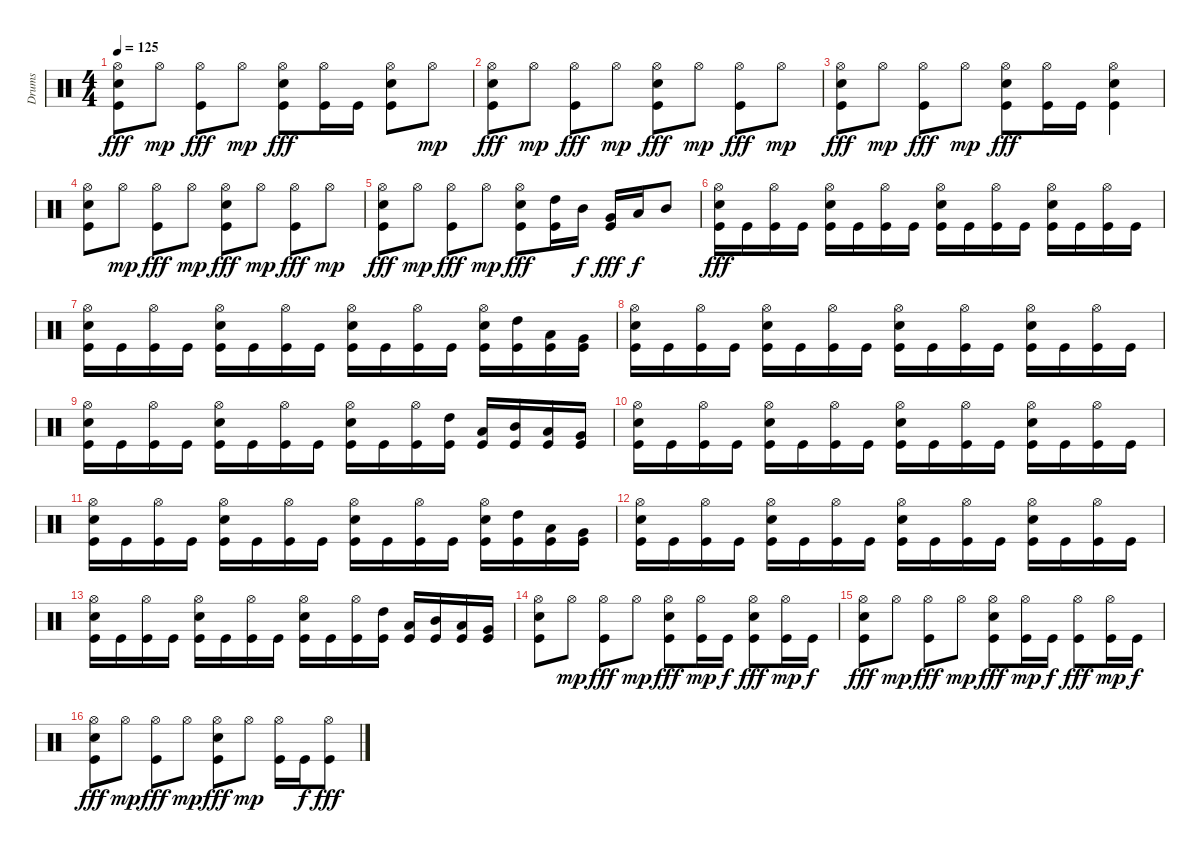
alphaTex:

\track ("Drums" "Drums") {instrument percussion}
\staff {score}
\articulation defaults
\ts (4 4)
\tempo 125
\clef neutral
\ks c
("Hi-Hat (open)" "Snare (hit) 2" "Kick (hit)").8{dy fff} "Hi-Hat (open)".8{dy mp} ("Hi-Hat (open)" "Kick (hit)").8{dy fff} "Hi-Hat (open)".8{dy mp} ("Hi-Hat (open)" "Snare (hit) 2" "Kick (hit)").8{dy fff} ("Hi-Hat (open)" "Kick (hit)").16 "Kick (hit)".16 ("Hi-Hat (open)" "Electric Snare (hit)" "Kick (hit)").8 "Hi-Hat (open)".8{dy mp} |
("Hi-Hat (open)" "Snare (hit) 2" "Kick (hit)").8{dy fff} "Hi-Hat (open)".8{dy mp} ("Hi-Hat (open)" "Kick (hit)").8{dy fff} "Hi-Hat (open)".8{dy mp} ("Hi-Hat (open)" "Snare (hit) 2" "Kick (hit)").8{dy fff} "Hi-Hat (open)".8{dy mp} ("Hi-Hat (open)" "Kick (hit)").8{dy fff} "Hi-Hat (open)".8{dy mp} |
("Hi-Hat (open)" "Snare (hit) 2" "Kick (hit)").8{dy fff} "Hi-Hat (open)".8{dy mp} ("Hi-Hat (open)" "Kick (hit)").8{dy fff} "Hi-Hat (open)".8{dy mp} ("Hi-Hat (open)" "Snare (hit) 2" "Kick (hit)").8{dy fff} ("Hi-Hat (open)" "Kick (hit)").16 "Kick (hit)".16 ("Hi-Hat (open)" "Electric Snare (hit)" "Kick (hit)").4 |
("Hi-Hat (open)" "Snare (hit) 2" "Kick (hit)").8 "Hi-Hat (open)".8{dy mp} ("Hi-Hat (open)" "Kick (hit)").8{dy fff} "Hi-Hat (open)".8{dy mp} ("Hi-Hat (open)" "Snare (hit) 2" "Kick (hit)").8{dy fff} "Hi-Hat (open)".8{dy mp} ("Hi-Hat (open)" "Kick (hit)").8{dy fff} "Hi-Hat (open)".8{dy mp} |
("Hi-Hat (open)" "Snare (hit) 2" "Kick (hit)").8{dy fff} "Hi-Hat (open)".8{dy mp} ("Hi-Hat (open)" "Kick (hit)").8{dy fff} "Hi-Hat (open)".8{dy mp} ("Hi-Hat (open)" "Snare (hit) 2" "Kick (hit)").8{dy fff} ("High Tom (hit)" "Kick (hit)").16 "Mid Tom (hit)".16{dy f} ("Very Low Tom (hit)" "Kick (hit)").16{dy fff} "Low Tom (hit)".16{dy f} "Mid Tom (hit)".8 |
("Hi-Hat (open)" "Electric Snare (hit)" "Kick (hit)").16{dy fff} "Kick (hit)".16 ("Hi-Hat (open)" "Kick (hit)").16 "Kick (hit)".16 ("Hi-Hat (open)" "Electric Snare (hit)" "Kick (hit)").16 "Kick (hit)".16 ("Hi-Hat (open)" "Kick (hit)").16 "Kick (hit)".16 ("Hi-Hat (open)" "Electric Snare (hit)" "Kick (hit)").16 "Kick (hit)".16 ("Hi-Hat (open)" "Kick (hit)").16 "Kick (hit)".16 ("Hi-Hat (open)" "Electric Snare (hit)" "Kick (hit)").16 "Kick (hit)".16 ("Hi-Hat (open)" "Kick (hit)").16 "Kick (hit)".16 |
("Hi-Hat (open)" "Electric Snare (hit)" "Kick (hit)").16 "Kick (hit)".16 ("Hi-Hat (open)" "Kick (hit)").16 "Kick (hit)".16 ("Hi-Hat (open)" "Electric Snare (hit)" "Kick (hit)").16 "Kick (hit)".16 ("Hi-Hat (open)" "Kick (hit)").16 "Kick (hit)".16 ("Hi-Hat (open)" "Electric Snare (hit)" "Kick (hit)").16 "Kick (hit)".16 ("Hi-Hat (open)" "Kick (hit)").16 "Kick (hit)".16 ("Hi-Hat (open)" "Electric Snare (hit)" "Kick (hit)").16 ("High Tom (hit)" "Kick (hit)").16 ("Low Tom (hit)" "Kick (hit)").16 ("Very Low Tom (hit)" "Kick (hit)").16 |
("Hi-Hat (open)" "Electric Snare (hit)" "Kick (hit)").16 "Kick (hit)".16 ("Hi-Hat (open)" "Kick (hit)").16 "Kick (hit)".16 ("Hi-Hat (open)" "Electric Snare (hit)" "Kick (hit)").16 "Kick (hit)".16 ("Hi-Hat (open)" "Kick (hit)").16 "Kick (hit)".16 ("Hi-Hat (open)" "Electric Snare (hit)" "Kick (hit)").16 "Kick (hit)".16 ("Hi-Hat (open)" "Kick (hit)").16 "Kick (hit)".16 ("Hi-Hat (open)" "Electric Snare (hit)" "Kick (hit)").16 "Kick (hit)".16 ("Hi-Hat (open)" "Kick (hit)").16 "Kick (hit)".16 |
("Hi-Hat (open)" "Electric Snare (hit)" "Kick (hit)").16 "Kick (hit)".16 ("Hi-Hat (open)" "Kick (hit)").16 "Kick (hit)".16 ("Hi-Hat (open)" "Electric Snare (hit)" "Kick (hit)").16 "Kick (hit)".16 ("Hi-Hat (open)" "Kick (hit)").16 "Kick (hit)".16 ("Hi-Hat (open)" "Electric Snare (hit)" "Kick (hit)").16 "Kick (hit)".16 ("Hi-Hat (open)" "Kick (hit)").16 ("High Tom (hit)" "Kick (hit)").16 ("Low Tom (hit)" "Kick (hit)").16 ("Mid Tom (hit)" "Kick (hit)").16 ("Low Tom (hit)" "Kick (hit)").16 ("Very Low Tom (hit)" "Kick (hit)").16 |
("Hi-Hat (open)" "Electric Snare (hit)" "Kick (hit)").16 "Kick (hit)".16 ("Hi-Hat (open)" "Kick (hit)").16 "Kick (hit)".16 ("Hi-Hat (open)" "Electric Snare (hit)" "Kick (hit)").16 "Kick (hit)".16 ("Hi-Hat (open)" "Kick (hit)").16 "Kick (hit)".16 ("Hi-Hat (open)" "Electric Snare (hit)" "Kick (hit)").16 "Kick (hit)".16 ("Hi-Hat (open)" "Kick (hit)").16 "Kick (hit)".16 ("Hi-Hat (open)" "Electric Snare (hit)" "Kick (hit)").16 "Kick (hit)".16 ("Hi-Hat (open)" "Kick (hit)").16 "Kick (hit)".16 |
("Hi-Hat (open)" "Electric Snare (hit)" "Kick (hit)").16 "Kick (hit)".16 ("Hi-Hat (open)" "Kick (hit)").16 "Kick (hit)".16 ("Hi-Hat (open)" "Electric Snare (hit)" "Kick (hit)").16 "Kick (hit)".16 ("Hi-Hat (open)" "Kick (hit)").16 "Kick (hit)".16 ("Hi-Hat (open)" "Electric Snare (hit)" "Kick (hit)").16 "Kick (hit)".16 ("Hi-Hat (open)" "Kick (hit)").16 "Kick (hit)".16 ("Hi-Hat (open)" "Electric Snare (hit)" "Kick (hit)").16 ("High Tom (hit)" "Kick (hit)").16 ("Low Tom (hit)" "Kick (hit)").16 ("Very Low Tom (hit)" "Kick (hit)").16 |
("Hi-Hat (open)" "Electric Snare (hit)" "Kick (hit)").16 "Kick (hit)".16 ("Hi-Hat (open)" "Kick (hit)").16 "Kick (hit)".16 ("Hi-Hat (open)" "Electric Snare (hit)" "Kick (hit)").16 "Kick (hit)".16 ("Hi-Hat (open)" "Kick (hit)").16 "Kick (hit)".16 ("Hi-Hat (open)" "Electric Snare (hit)" "Kick (hit)").16 "Kick (hit)".16 ("Hi-Hat (open)" "Kick (hit)").16 "Kick (hit)".16 ("Hi-Hat (open)" "Electric Snare (hit)" "Kick (hit)").16 "Kick (hit)".16 ("Hi-Hat (open)" "Kick (hit)").16 "Kick (hit)".16 |
("Hi-Hat (open)" "Electric Snare (hit)" "Kick (hit)").16 "Kick (hit)".16 ("Hi-Hat (open)" "Kick (hit)").16 "Kick (hit)".16 ("Hi-Hat (open)" "Electric Snare (hit)" "Kick (hit)").16 "Kick (hit)".16 ("Hi-Hat (open)" "Kick (hit)").16 "Kick (hit)".16 ("Hi-Hat (open)" "Electric Snare (hit)" "Kick (hit)").16 "Kick (hit)".16 ("Hi-Hat (open)" "Kick (hit)").16 ("High Tom (hit)" "Kick (hit)").16 ("Low Tom (hit)" "Kick (hit)").16 ("Mid Tom (hit)" "Kick (hit)").16 ("Low Tom (hit)" "Kick (hit)").16 ("Very Low Tom (hit)" "Kick (hit)").16 |
("Hi-Hat (open)" "Snare (hit) 2" "Kick (hit)").8 "Hi-Hat (open)".8{dy mp} ("Hi-Hat (open)" "Kick (hit)").8{dy fff} "Hi-Hat (open)".8{dy mp} ("Hi-Hat (open)" "Snare (hit) 2" "Kick (hit)").8{dy fff} ("Hi-Hat (open)" "Kick (hit)").16{dy mp} "Kick (hit)".16{dy f} ("Hi-Hat (open)" "Snare (hit) 2" "Kick (hit)").8{dy fff} ("Hi-Hat (open)" "Kick (hit)").16{dy mp} "Kick (hit)".16{dy f} |
("Hi-Hat (open)" "Snare (hit) 2" "Kick (hit)").8{dy fff} "Hi-Hat (open)".8{dy mp} ("Hi-Hat (open)" "Kick (hit)").8{dy fff} "Hi-Hat (open)".8{dy mp} ("Hi-Hat (open)" "Snare (hit) 2" "Kick (hit)").8{dy fff} ("Hi-Hat (open)" "Kick (hit)").16{dy mp} "Kick (hit)".16{dy f} ("Hi-Hat (open)" "Kick (hit)").8{dy fff} ("Hi-Hat (open)" "Kick (hit)").16{dy mp} "Kick (hit)".16{dy f} |
("Hi-Hat (open)" "Snare (hit) 2" "Kick (hit)").8{dy fff} "Hi-Hat (open)".8{dy mp} ("Hi-Hat (open)" "Kick (hit)").8{dy fff} "Hi-Hat (open)".8{dy mp} ("Hi-Hat (open)" "Snare (hit) 2" "Kick (hit)").8{dy fff} "Hi-Hat (open)".8{dy mp} ("Hi-Hat (open)" "Kick (hit)").16 "Kick (hit)".16{dy f} ("Hi-Hat (open)" "Kick (hit)").8{dy fff}
